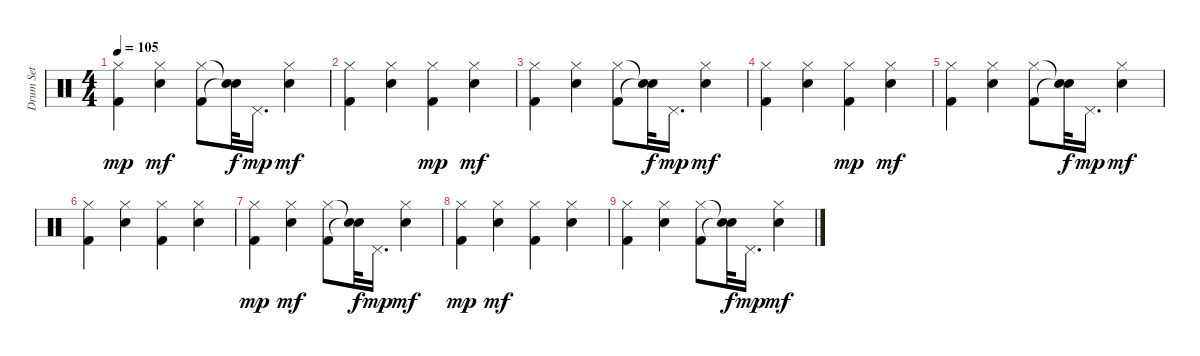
\track ("Drum Set" "Drum Set") {instrument percussion}
\staff {score}
\articulation defaults
\ts (4 4)
\tempo 105
\clef neutral
\ks c
("Kick (hit) 2" "Hi-Hat (closed)").4{dy mp} ("Snare (hit) 2" "Hi-Hat (closed)").4{dy mf} ("Kick (hit) 2" "Hi-Hat (closed)").8 ("Snare (hit)"{t} "Snare (hit)"{t}).32{dy f} "Pedal Hi-Hat (hit)".16{d dy mp} ("Snare (hit) 2" "Hi-Hat (closed)").4{dy mf} |
("Kick (hit) 2" "Hi-Hat (closed)").4 ("Snare (hit) 2" "Hi-Hat (closed)").4 ("Kick (hit) 2" "Hi-Hat (closed)").4{dy mp} ("Snare (hit) 2" "Hi-Hat (closed)").4{dy mf} |
("Kick (hit) 2" "Hi-Hat (closed)").4 ("Snare (hit) 2" "Hi-Hat (closed)").4 ("Kick (hit) 2" "Hi-Hat (closed)").8 ("Snare (hit)"{t} "Snare (hit)"{t}).32{dy f} "Pedal Hi-Hat (hit)".16{d dy mp} ("Snare (hit) 2" "Hi-Hat (closed)").4{dy mf} |
("Kick (hit) 2" "Hi-Hat (closed)").4 ("Snare (hit) 2" "Hi-Hat (closed)").4 ("Kick (hit) 2" "Hi-Hat (closed)").4{dy mp} ("Snare (hit) 2" "Hi-Hat (closed)").4{dy mf} |
("Kick (hit) 2" "Hi-Hat (closed)").4 ("Snare (hit) 2" "Hi-Hat (closed)").4 ("Kick (hit) 2" "Hi-Hat (closed)").8 ("Snare (hit)"{t} "Snare (hit)"{t}).32{dy f} "Pedal Hi-Hat (hit)".16{d dy mp} ("Snare (hit) 2" "Hi-Hat (closed)").4{dy mf} |
("Kick (hit) 2" "Hi-Hat (closed)").4 ("Snare (hit) 2" "Hi-Hat (closed)").4 ("Kick (hit) 2" "Hi-Hat (closed)").4 ("Snare (hit) 2" "Hi-Hat (closed)").4 |
("Kick (hit) 2" "Hi-Hat (closed)").4{dy mp} ("Snare (hit) 2" "Hi-Hat (closed)").4{dy mf} ("Kick (hit) 2" "Hi-Hat (closed)").8 ("Snare (hit)"{t} "Snare (hit)"{t}).32{dy f} "Pedal Hi-Hat (hit)".16{d dy mp} ("Snare (hit) 2" "Hi-Hat (closed)").4{dy mf} |
("Kick (hit) 2" "Hi-Hat (closed)").4{dy mp} ("Snare (hit) 2" "Hi-Hat (closed)").4{dy mf} ("Kick (hit) 2" "Hi-Hat (closed)").4 ("Snare (hit) 2" "Hi-Hat (closed)").4 |
("Kick (hit) 2" "Hi-Hat (closed)").4 ("Snare (hit) 2" "Hi-Hat (closed)").4 ("Kick (hit) 2" "Hi-Hat (closed)").8 ("Snare (hit)"{t} "Snare (hit)"{t}).32{dy f} "Pedal Hi-Hat (hit)".16{d dy mp} ("Snare (hit) 2" "Hi-Hat (closed)").4{dy mf}
